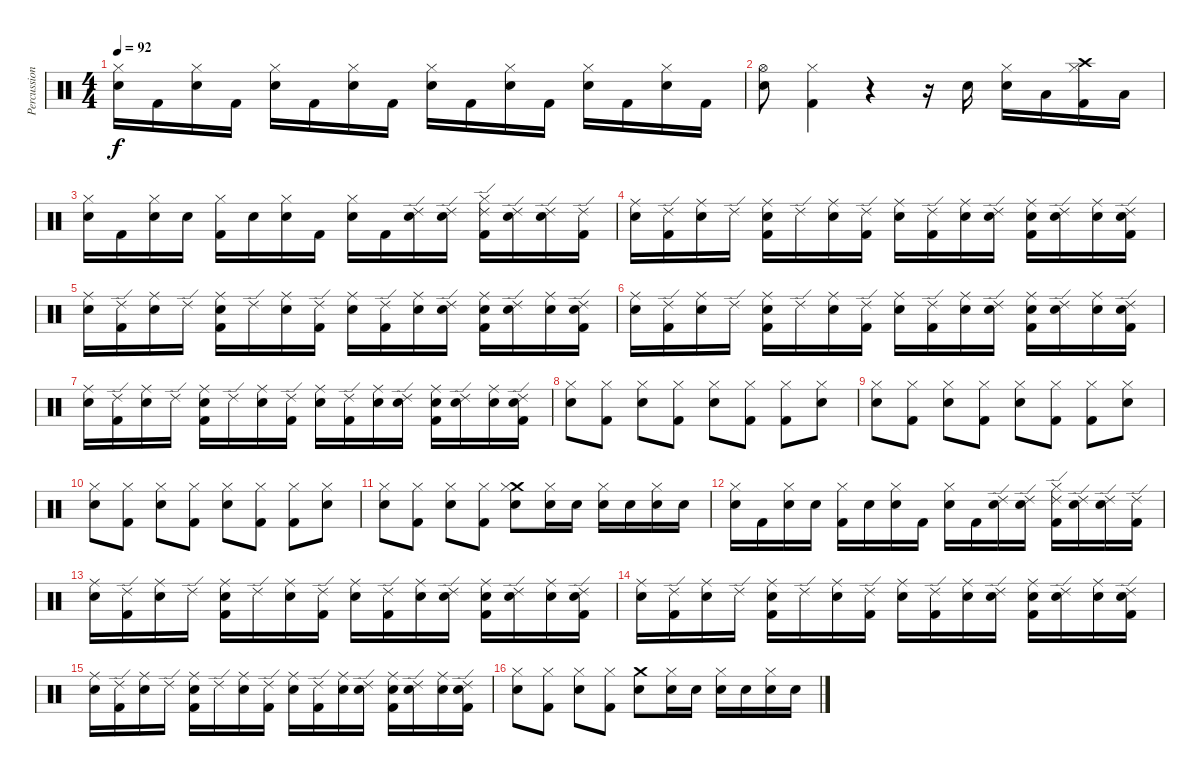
\track ("Percussion" "Percussion") {instrument percussion}
\staff {score}
\articulation defaults
\ts (4 4)
\tempo 92
\clef neutral
\ks c
("Hi-Hat (closed)" "Snare (hit) 2").16{dy f} "Kick (hit) 2".16 ("Hi-Hat (closed)" "Snare (hit) 2").16 "Kick (hit) 2".16 ("Hi-Hat (closed)" "Snare (hit) 2").16 "Kick (hit) 2".16 ("Hi-Hat (closed)" "Snare (hit) 2").16 "Kick (hit) 2".16 ("Hi-Hat (closed)" "Snare (hit) 2").16 "Kick (hit) 2".16 ("Hi-Hat (closed)" "Snare (hit) 2").16 "Kick (hit) 2".16 ("Hi-Hat (closed)" "Snare (hit) 2").16 "Kick (hit) 2".16 ("Hi-Hat (closed)" "Snare (hit) 2").16 "Kick (hit) 2".16 |
("Hi-Hat (open)" "Snare (hit) 2").8 ("Hi-Hat (closed)" "Kick (hit) 2").4 r.4 r.16 "Snare (hit) 2".16 ("Hi-Hat (closed)" "Snare (hit) 2").16 "Low Floor Tom (hit)".16 ("Crash high (hit)" "Hi-Hat (closed)" "Kick (hit) 2").16 "Low Floor Tom (hit)".16 |
("Hi-Hat (closed)" "Snare (hit) 2").16 "Kick (hit) 2".16 ("Hi-Hat (closed)" "Snare (hit) 2").16 "Snare (hit) 2".16 ("Hi-Hat (closed)" "Kick (hit) 2").16 "Snare (hit) 2".16 ("Hi-Hat (closed)" "Snare (hit) 2").16 "Kick (hit) 2".16 ("Hi-Hat (closed)" "Snare (hit) 2").16 "Kick (hit) 2".16 ("Ride (edge) 2" "Snare (hit) 2").16 ("Ride (edge) 2" "Snare (hit) 2").16 ("Ride (edge) 2" "Hi-Hat (closed)" "Kick (hit) 2").16 ("Ride (edge) 2" "Snare (hit) 2").16 ("Ride (edge) 2" "Snare (hit) 2").16 ("Ride (edge) 2" "Kick (hit) 2").16 |
("Ride (middle)" "Snare (hit) 2").16 ("Ride (edge) 2" "Kick (hit) 2").16 ("Ride (middle)" "Snare (hit) 2").16 "Ride (edge) 2".16 ("Ride (middle)" "Snare (hit) 2" "Kick (hit) 2").16 "Ride (edge) 2".16 ("Ride (middle)" "Snare (hit) 2").16 ("Ride (edge) 2" "Kick (hit) 2").16 ("Ride (middle)" "Snare (hit) 2").16 ("Ride (edge) 2" "Kick (hit) 2").16 ("Ride (middle)" "Snare (hit) 2").16 ("Ride (edge) 2" "Snare (hit) 2").16 ("Ride (middle)" "Snare (hit) 2" "Kick (hit) 2").16 ("Ride (edge) 2" "Snare (hit) 2").16 ("Ride (middle)" "Snare (hit) 2").16 ("Ride (edge) 2" "Snare (hit) 2" "Kick (hit) 2").16 |
("Ride (middle)" "Snare (hit) 2").16 ("Ride (edge) 2" "Kick (hit) 2").16 ("Ride (middle)" "Snare (hit) 2").16 "Ride (edge) 2".16 ("Ride (middle)" "Snare (hit) 2" "Kick (hit) 2").16 "Ride (edge) 2".16 ("Ride (middle)" "Snare (hit) 2").16 ("Ride (edge) 2" "Kick (hit) 2").16 ("Ride (middle)" "Snare (hit) 2").16 ("Ride (edge) 2" "Kick (hit) 2").16 ("Ride (middle)" "Snare (hit) 2").16 ("Ride (edge) 2" "Snare (hit) 2").16 ("Ride (middle)" "Snare (hit) 2" "Kick (hit) 2").16 ("Ride (edge) 2" "Snare (hit) 2").16 ("Ride (middle)" "Snare (hit) 2").16 ("Ride (edge) 2" "Snare (hit) 2" "Kick (hit) 2").16 |
("Ride (middle)" "Snare (hit) 2").16 ("Ride (edge) 2" "Kick (hit) 2").16 ("Ride (middle)" "Snare (hit) 2").16 "Ride (edge) 2".16 ("Ride (middle)" "Snare (hit) 2" "Kick (hit) 2").16 "Ride (edge) 2".16 ("Ride (middle)" "Snare (hit) 2").16 ("Ride (edge) 2" "Kick (hit) 2").16 ("Ride (middle)" "Snare (hit) 2").16 ("Ride (edge) 2" "Kick (hit) 2").16 ("Ride (middle)" "Snare (hit) 2").16 ("Ride (edge) 2" "Snare (hit) 2").16 ("Ride (middle)" "Snare (hit) 2" "Kick (hit) 2").16 ("Ride (edge) 2" "Snare (hit) 2").16 ("Ride (middle)" "Snare (hit) 2").16 ("Ride (edge) 2" "Snare (hit) 2" "Kick (hit) 2").16 |
("Ride (middle)" "Snare (hit) 2").16 ("Ride (edge) 2" "Kick (hit) 2").16 ("Ride (middle)" "Snare (hit) 2").16 "Ride (edge) 2".16 ("Ride (middle)" "Snare (hit) 2" "Kick (hit) 2").16 "Ride (edge) 2".16 ("Ride (middle)" "Snare (hit) 2").16 ("Ride (edge) 2" "Kick (hit) 2").16 ("Ride (middle)" "Snare (hit) 2").16 ("Ride (edge) 2" "Kick (hit) 2").16 ("Ride (middle)" "Snare (hit) 2").16 ("Ride (edge) 2" "Snare (hit) 2").16 ("Ride (middle)" "Snare (hit) 2" "Kick (hit) 2").16 ("Ride (edge) 2" "Snare (hit) 2").16 ("Ride (middle)" "Snare (hit) 2").16 ("Ride (edge) 2" "Snare (hit) 2" "Kick (hit) 2").16 |
("Hi-Hat (closed)" "Snare (hit) 2").8 ("Hi-Hat (closed)" "Kick (hit) 2").8 ("Hi-Hat (closed)" "Snare (hit) 2").8 ("Hi-Hat (closed)" "Kick (hit) 2").8 ("Hi-Hat (closed)" "Snare (hit) 2").8 ("Hi-Hat (closed)" "Kick (hit) 2").8 ("Hi-Hat (closed)" "Kick (hit) 2").8 ("Hi-Hat (closed)" "Snare (hit) 2").8 |
("Hi-Hat (closed)" "Snare (hit) 2").8 ("Hi-Hat (closed)" "Kick (hit) 2").8 ("Hi-Hat (closed)" "Snare (hit) 2").8 ("Hi-Hat (closed)" "Kick (hit) 2").8 ("Hi-Hat (closed)" "Snare (hit) 2").8 ("Hi-Hat (closed)" "Kick (hit) 2").8 ("Hi-Hat (closed)" "Kick (hit) 2").8 ("Hi-Hat (closed)" "Snare (hit) 2").8 |
("Hi-Hat (closed)" "Snare (hit) 2").8 ("Hi-Hat (closed)" "Kick (hit) 2").8 ("Hi-Hat (closed)" "Snare (hit) 2").8 ("Hi-Hat (closed)" "Kick (hit) 2").8 ("Hi-Hat (closed)" "Snare (hit) 2").8 ("Hi-Hat (closed)" "Kick (hit) 2").8 ("Hi-Hat (closed)" "Kick (hit) 2").8 ("Hi-Hat (closed)" "Snare (hit) 2").8 |
("Hi-Hat (closed)" "Snare (hit) 2").8 ("Hi-Hat (closed)" "Kick (hit) 2").8 ("Hi-Hat (closed)" "Snare (hit) 2").8 ("Hi-Hat (closed)" "Kick (hit) 2").8 ("Crash medium (hit)" "Hi-Hat (closed)" "Snare (hit) 2").8 ("Hi-Hat (closed)" "Snare (hit) 2").16 "Snare (hit) 2".16 ("Hi-Hat (closed)" "Snare (hit) 2").16 "Snare (hit) 2".16 ("Hi-Hat (closed)" "Snare (hit) 2").16 "Snare (hit) 2".16 |
("Hi-Hat (closed)" "Snare (hit) 2").16 "Kick (hit) 2".16 ("Hi-Hat (closed)" "Snare (hit) 2").16 "Snare (hit) 2".16 ("Hi-Hat (closed)" "Kick (hit) 2").16 "Snare (hit) 2".16 ("Hi-Hat (closed)" "Snare (hit) 2").16 "Kick (hit) 2".16 ("Hi-Hat (closed)" "Snare (hit) 2").16 "Kick (hit) 2".16 ("Ride (edge) 2" "Snare (hit) 2").16 ("Ride (edge) 2" "Snare (hit) 2").16 ("Ride (edge) 2" "Hi-Hat (closed)" "Kick (hit) 2").16 ("Ride (edge) 2" "Snare (hit) 2").16 ("Ride (edge) 2" "Snare (hit) 2").16 ("Ride (edge) 2" "Kick (hit) 2").16 |
("Ride (middle)" "Snare (hit) 2").16 ("Ride (edge) 2" "Kick (hit) 2").16 ("Ride (middle)" "Snare (hit) 2").16 "Ride (edge) 2".16 ("Ride (middle)" "Snare (hit) 2" "Kick (hit) 2").16 "Ride (edge) 2".16 ("Ride (middle)" "Snare (hit) 2").16 ("Ride (edge) 2" "Kick (hit) 2").16 ("Ride (middle)" "Snare (hit) 2").16 ("Ride (edge) 2" "Kick (hit) 2").16 ("Ride (middle)" "Snare (hit) 2").16 ("Ride (edge) 2" "Snare (hit) 2").16 ("Ride (middle)" "Snare (hit) 2" "Kick (hit) 2").16 ("Ride (edge) 2" "Snare (hit) 2").16 ("Ride (middle)" "Snare (hit) 2").16 ("Ride (edge) 2" "Snare (hit) 2" "Kick (hit) 2").16 |
("Ride (middle)" "Snare (hit) 2").16 ("Ride (edge) 2" "Kick (hit) 2").16 ("Ride (middle)" "Snare (hit) 2").16 "Ride (edge) 2".16 ("Ride (middle)" "Snare (hit) 2" "Kick (hit) 2").16 "Ride (edge) 2".16 ("Ride (middle)" "Snare (hit) 2").16 ("Ride (edge) 2" "Kick (hit) 2").16 ("Ride (middle)" "Snare (hit) 2").16 ("Ride (edge) 2" "Kick (hit) 2").16 ("Ride (middle)" "Snare (hit) 2").16 ("Ride (edge) 2" "Snare (hit) 2").16 ("Ride (middle)" "Snare (hit) 2" "Kick (hit) 2").16 ("Ride (edge) 2" "Snare (hit) 2").16 ("Ride (middle)" "Snare (hit) 2").16 ("Ride (edge) 2" "Snare (hit) 2" "Kick (hit) 2").16 |
("Ride (middle)" "Snare (hit) 2").16 ("Ride (edge) 2" "Kick (hit) 2").16 ("Ride (middle)" "Snare (hit) 2").16 "Ride (edge) 2".16 ("Ride (middle)" "Snare (hit) 2" "Kick (hit) 2").16 "Ride (edge) 2".16 ("Ride (middle)" "Snare (hit) 2").16 ("Ride (edge) 2" "Kick (hit) 2").16 ("Ride (middle)" "Snare (hit) 2").16 ("Ride (edge) 2" "Kick (hit) 2").16 ("Ride (middle)" "Snare (hit) 2").16 ("Ride (edge) 2" "Snare (hit) 2").16 ("Ride (middle)" "Snare (hit) 2" "Kick (hit) 2").16 ("Ride (edge) 2" "Snare (hit) 2").16 ("Ride (middle)" "Snare (hit) 2").16 ("Ride (edge) 2" "Snare (hit) 2" "Kick (hit) 2").16 |
("Hi-Hat (closed)" "Snare (hit) 2").8 ("Hi-Hat (closed)" "Kick (hit) 2").8 ("Hi-Hat (closed)" "Snare (hit) 2").8 ("Hi-Hat (closed)" "Kick (hit) 2").8 ("Crash medium (hit)" "Snare (hit) 2").8 ("Hi-Hat (closed)" "Snare (hit) 2").16 "Snare (hit) 2".16 ("Hi-Hat (closed)" "Snare (hit) 2").16 "Snare (hit) 2".16 ("Hi-Hat (closed)" "Snare (hit) 2").16 "Snare (hit) 2".16
